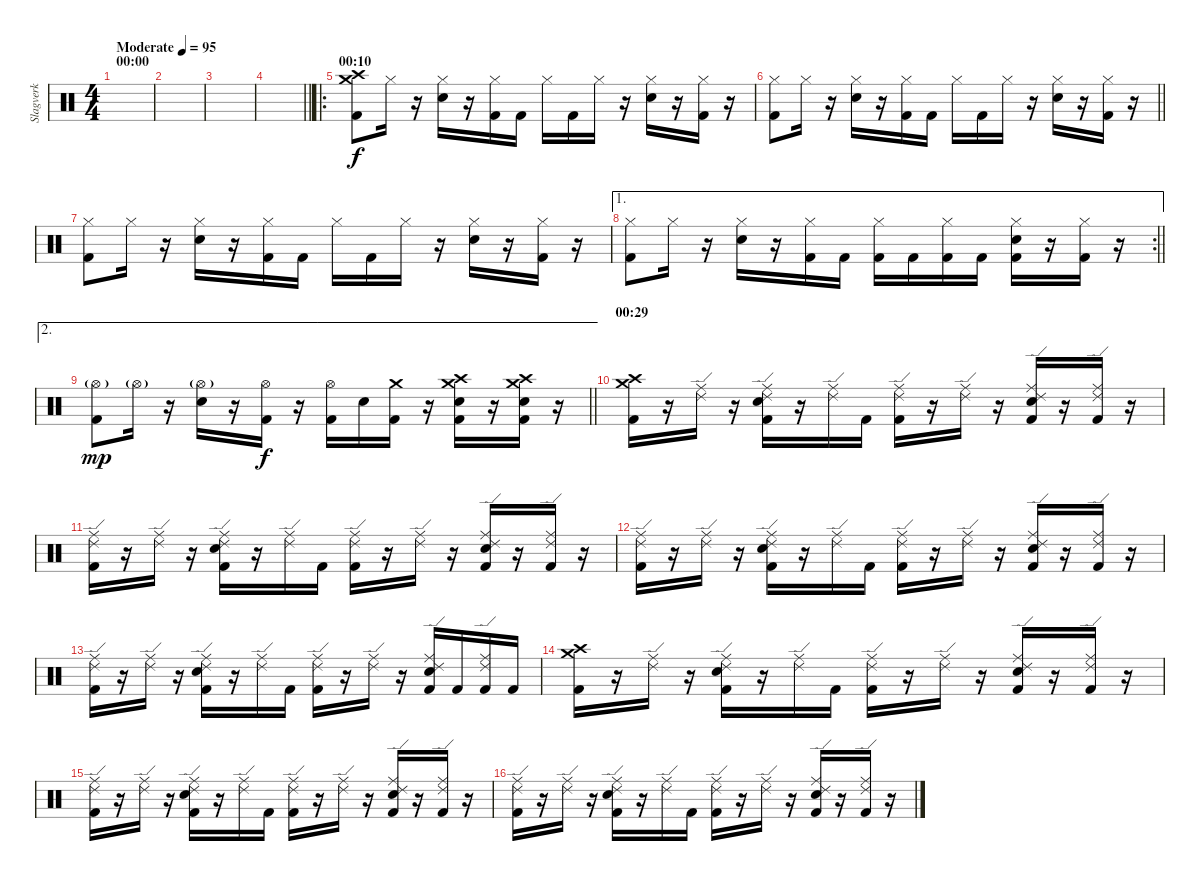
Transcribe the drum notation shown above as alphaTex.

\track ("Slagverk" "Slagverk") {instrument percussion}
\staff {score}
\articulation defaults
\ts (4 4)
\section ("" "00:00")
\tempo (95 "Moderate")
\clef neutral
\ks c
|
|
|
\barLineRight lightlight
|
\ro
\section ("" "00:10")
("Crash medium (hit)" "Crash high (hit)" "Kick (hit) 2").8 "Hi-Hat (closed)".16 r.16 ("Hi-Hat (closed)" "Electric Snare (hit)").16 r.16 ("Hi-Hat (closed)" "Kick (hit) 2").16 "Kick (hit) 2".16 "Hi-Hat (closed)".16 "Kick (hit) 2".16 "Hi-Hat (closed)".16 r.16 ("Hi-Hat (closed)" "Electric Snare (hit)").16 r.16 ("Hi-Hat (closed)" "Kick (hit) 2").16 r.16 |
\barLineRight lightlight
("Hi-Hat (closed)" "Kick (hit) 2").8 "Hi-Hat (closed)".16 r.16 ("Hi-Hat (closed)" "Electric Snare (hit)").16 r.16 ("Hi-Hat (closed)" "Kick (hit) 2").16 "Kick (hit) 2".16 "Hi-Hat (closed)".16 "Kick (hit) 2".16 "Hi-Hat (closed)".16 r.16 ("Hi-Hat (closed)" "Electric Snare (hit)").16 r.16 ("Hi-Hat (closed)" "Kick (hit) 2").16 r.16 |
("Hi-Hat (closed)" "Kick (hit) 2").8 "Hi-Hat (closed)".16 r.16 ("Hi-Hat (closed)" "Electric Snare (hit)").16 r.16 ("Hi-Hat (closed)" "Kick (hit) 2").16 "Kick (hit) 2".16 "Hi-Hat (closed)".16 "Kick (hit) 2".16 "Hi-Hat (closed)".16 r.16 ("Hi-Hat (closed)" "Electric Snare (hit)").16 r.16 ("Hi-Hat (closed)" "Kick (hit) 2").16 r.16 |
\ae 1
\rc 2
\barLineRight lightlight
("Hi-Hat (closed)" "Kick (hit) 2").8 "Hi-Hat (closed)".16 r.16 ("Hi-Hat (closed)" "Electric Snare (hit)").16 r.16 ("Hi-Hat (closed)" "Kick (hit) 2").16 "Kick (hit) 2".16 ("Hi-Hat (closed)" "Kick (hit) 2").16 "Kick (hit) 2".16 ("Hi-Hat (closed)" "Kick (hit) 2").16 "Kick (hit) 2".16 ("Hi-Hat (closed)" "Electric Snare (hit)" "Kick (hit) 2").16 r.16 ("Hi-Hat (closed)" "Kick (hit) 2").16 r.16 |
\ae 2
\barLineRight lightlight
("Hi-Hat (open)"{g} "Kick (hit) 2").8{dy mp} "Hi-Hat (open)"{g}.16 r.16 ("Hi-Hat (open)"{g} "Electric Snare (hit)").16 r.16 ("Hi-Hat (open)" "Kick (hit) 2").16{dy f} r.16 ("Hi-Hat (open)" "Kick (hit) 2").16 "Electric Snare (hit)".16 ("Crash medium (hit)" "Kick (hit) 2").16 r.16 ("Crash high (hit)" "Crash medium (hit)" "Electric Snare (hit)" "Kick (hit) 2").16 r.16 ("Crash high (hit)" "Crash medium (hit)" "Electric Snare (hit)" "Kick (hit) 2").16 r.16 |
\section ("" "00:29")
("Crash medium (hit)" "Crash high (hit)" "Kick (hit) 2").16 r.16 ("Ride (middle)" "Ride (edge) 2").16 r.16 ("Ride (middle)" "Ride (edge) 2" "Electric Snare (hit)" "Kick (hit) 2").16 r.16 ("Ride (middle)" "Ride (edge) 2").16 "Kick (hit) 2".16 ("Ride (middle)" "Ride (edge) 2" "Kick (hit) 2").16 r.16 ("Ride (middle)" "Ride (edge) 2").16 r.16 ("Ride (middle)" "Ride (edge) 2" "Electric Snare (hit)" "Kick (hit) 2").16 r.16 ("Ride (middle)" "Ride (edge) 2" "Kick (hit) 2").16 r.16 |
("Ride (middle)" "Ride (edge) 2" "Kick (hit) 2").16 r.16 ("Ride (middle)" "Ride (edge) 2").16 r.16 ("Ride (middle)" "Ride (edge) 2" "Electric Snare (hit)" "Kick (hit) 2").16 r.16 ("Ride (middle)" "Ride (edge) 2").16 "Kick (hit) 2".16 ("Ride (middle)" "Ride (edge) 2" "Kick (hit) 2").16 r.16 ("Ride (middle)" "Ride (edge) 2").16 r.16 ("Ride (middle)" "Ride (edge) 2" "Electric Snare (hit)" "Kick (hit) 2").16 r.16 ("Ride (middle)" "Ride (edge) 2" "Kick (hit) 2").16 r.16 |
("Ride (middle)" "Ride (edge) 2" "Kick (hit) 2").16 r.16 ("Ride (middle)" "Ride (edge) 2").16 r.16 ("Ride (middle)" "Ride (edge) 2" "Electric Snare (hit)" "Kick (hit) 2").16 r.16 ("Ride (middle)" "Ride (edge) 2").16 "Kick (hit) 2".16 ("Ride (middle)" "Ride (edge) 2" "Kick (hit) 2").16 r.16 ("Ride (middle)" "Ride (edge) 2").16 r.16 ("Ride (middle)" "Ride (edge) 2" "Electric Snare (hit)" "Kick (hit) 2").16 r.16 ("Ride (middle)" "Ride (edge) 2" "Kick (hit) 2").16 r.16 |
("Ride (middle)" "Ride (edge) 2" "Kick (hit) 2").16 r.16 ("Ride (middle)" "Ride (edge) 2").16 r.16 ("Ride (middle)" "Ride (edge) 2" "Electric Snare (hit)" "Kick (hit) 2").16 r.16 ("Ride (middle)" "Ride (edge) 2").16 "Kick (hit) 2".16 ("Ride (middle)" "Ride (edge) 2" "Kick (hit) 2").16 r.16 ("Ride (middle)" "Ride (edge) 2").16 r.16 ("Ride (middle)" "Ride (edge) 2" "Electric Snare (hit)" "Kick (hit) 2").16 "Kick (hit) 2".16 ("Ride (middle)" "Ride (edge) 2" "Kick (hit) 2").16 "Kick (hit) 2".16 |
("Crash medium (hit)" "Crash high (hit)" "Kick (hit) 2").16 r.16 ("Ride (middle)" "Ride (edge) 2").16 r.16 ("Ride (middle)" "Ride (edge) 2" "Electric Snare (hit)" "Kick (hit) 2").16 r.16 ("Ride (middle)" "Ride (edge) 2").16 "Kick (hit) 2".16 ("Ride (middle)" "Ride (edge) 2" "Kick (hit) 2").16 r.16 ("Ride (middle)" "Ride (edge) 2").16 r.16 ("Ride (middle)" "Ride (edge) 2" "Electric Snare (hit)" "Kick (hit) 2").16 r.16 ("Ride (middle)" "Ride (edge) 2" "Kick (hit) 2").16 r.16 |
("Ride (middle)" "Ride (edge) 2" "Kick (hit) 2").16 r.16 ("Ride (middle)" "Ride (edge) 2").16 r.16 ("Ride (middle)" "Ride (edge) 2" "Electric Snare (hit)" "Kick (hit) 2").16 r.16 ("Ride (middle)" "Ride (edge) 2").16 "Kick (hit) 2".16 ("Ride (middle)" "Ride (edge) 2" "Kick (hit) 2").16 r.16 ("Ride (middle)" "Ride (edge) 2").16 r.16 ("Ride (middle)" "Ride (edge) 2" "Electric Snare (hit)" "Kick (hit) 2").16 r.16 ("Ride (middle)" "Ride (edge) 2" "Kick (hit) 2").16 r.16 |
("Ride (middle)" "Ride (edge) 2" "Kick (hit) 2").16 r.16 ("Ride (middle)" "Ride (edge) 2").16 r.16 ("Ride (middle)" "Ride (edge) 2" "Electric Snare (hit)" "Kick (hit) 2").16 r.16 ("Ride (middle)" "Ride (edge) 2").16 "Kick (hit) 2".16 ("Ride (middle)" "Ride (edge) 2" "Kick (hit) 2").16 r.16 ("Ride (middle)" "Ride (edge) 2").16 r.16 ("Ride (middle)" "Ride (edge) 2" "Electric Snare (hit)" "Kick (hit) 2").16 r.16 ("Ride (middle)" "Ride (edge) 2" "Kick (hit) 2").16 r.16
